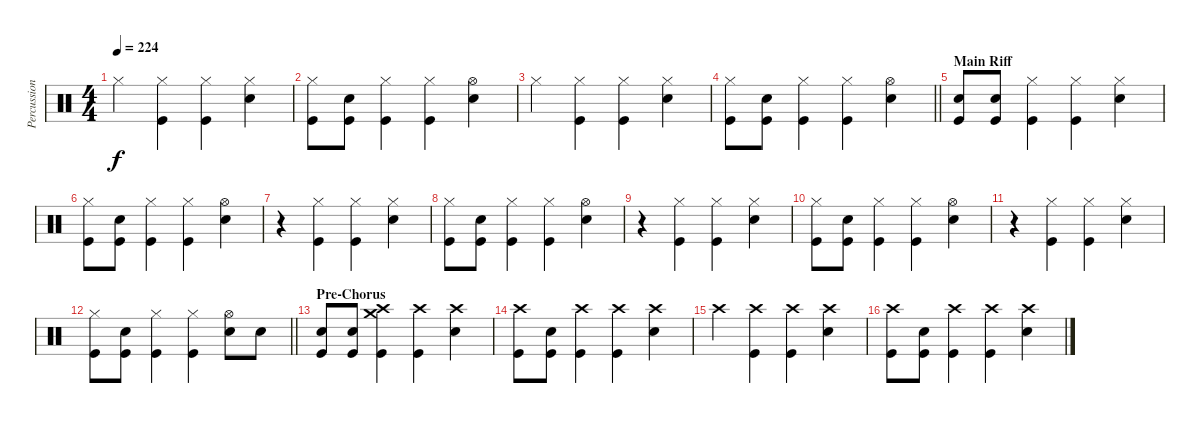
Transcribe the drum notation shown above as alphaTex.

\track ("Percussion" "Percussion") {instrument percussion}
\staff {score}
\articulation defaults
\ts (4 4)
\tempo 224
\clef neutral
\ks c "Hi-Hat (closed)".4{dy f}
("Hi-Hat (closed)" "Kick (hit)").4 ("Hi-Hat (closed)" "Kick (hit)").4 ("Hi-Hat (closed)" "Electric Snare (hit)").4 |
("Hi-Hat (closed)" "Kick (hit)").8 ("Electric Snare (hit)" "Kick (hit)").8 ("Hi-Hat (closed)" "Kick (hit)").4 ("Hi-Hat (closed)" "Kick (hit)").4 ("Hi-Hat (open)" "Electric Snare (hit)").4 |
"Hi-Hat (closed)".4 ("Hi-Hat (closed)" "Kick (hit)").4 ("Hi-Hat (closed)" "Kick (hit)").4 ("Hi-Hat (closed)" "Electric Snare (hit)").4 |
\barLineRight lightlight
("Hi-Hat (closed)" "Kick (hit)").8 ("Electric Snare (hit)" "Kick (hit)").8 ("Hi-Hat (closed)" "Kick (hit)").4 ("Hi-Hat (closed)" "Kick (hit)").4 ("Hi-Hat (open)" "Electric Snare (hit)").4 |
\section ("" "Main Riff")
("Electric Snare (hit)" "Kick (hit)").8 ("Electric Snare (hit)" "Kick (hit)").8 ("Hi-Hat (closed)" "Kick (hit)").4 ("Hi-Hat (closed)" "Kick (hit)").4 ("Hi-Hat (closed)" "Electric Snare (hit)").4 |
("Hi-Hat (closed)" "Kick (hit)").8 ("Electric Snare (hit)" "Kick (hit)").8 ("Hi-Hat (closed)" "Kick (hit)").4 ("Hi-Hat (closed)" "Kick (hit)").4 ("Hi-Hat (open)" "Electric Snare (hit)").4 |
r.4 ("Hi-Hat (closed)" "Kick (hit)").4 ("Hi-Hat (closed)" "Kick (hit)").4 ("Hi-Hat (closed)" "Electric Snare (hit)").4 |
("Hi-Hat (closed)" "Kick (hit)").8 ("Electric Snare (hit)" "Kick (hit)").8 ("Hi-Hat (closed)" "Kick (hit)").4 ("Hi-Hat (closed)" "Kick (hit)").4 ("Hi-Hat (open)" "Electric Snare (hit)").4 |
r.4 ("Hi-Hat (closed)" "Kick (hit)").4 ("Hi-Hat (closed)" "Kick (hit)").4 ("Hi-Hat (closed)" "Electric Snare (hit)").4 |
("Hi-Hat (closed)" "Kick (hit)").8 ("Electric Snare (hit)" "Kick (hit)").8 ("Hi-Hat (closed)" "Kick (hit)").4 ("Hi-Hat (closed)" "Kick (hit)").4 ("Hi-Hat (open)" "Electric Snare (hit)").4 |
r.4 ("Hi-Hat (closed)" "Kick (hit)").4 ("Hi-Hat (closed)" "Kick (hit)").4 ("Hi-Hat (closed)" "Electric Snare (hit)").4 |
\barLineRight lightlight
("Hi-Hat (closed)" "Kick (hit)").8 ("Electric Snare (hit)" "Kick (hit)").8 ("Hi-Hat (closed)" "Kick (hit)").4 ("Hi-Hat (closed)" "Kick (hit)").4 ("Hi-Hat (open)" "Electric Snare (hit)").8 "Electric Snare (hit)".8 |
\section ("" "Pre-Chorus")
("Electric Snare (hit)" "Kick (hit)").8 ("Electric Snare (hit)" "Kick (hit)").8 ("Crash high (hit)" "Crash medium (hit)" "Kick (hit)").4 ("Crash high (hit)" "Kick (hit)").4 ("Crash high (hit)" "Electric Snare (hit)").4 |
("Crash high (hit)" "Kick (hit)").8 ("Electric Snare (hit)" "Kick (hit)").8 ("Crash high (hit)" "Kick (hit)").4 ("Crash high (hit)" "Kick (hit)").4 ("Crash high (hit)" "Electric Snare (hit)").4 |
"Crash high (hit)".4 ("Crash high (hit)" "Kick (hit)").4 ("Crash high (hit)" "Kick (hit)").4 ("Crash high (hit)" "Electric Snare (hit)").4 |
("Crash high (hit)" "Kick (hit)").8 ("Electric Snare (hit)" "Kick (hit)").8 ("Crash high (hit)" "Kick (hit)").4 ("Crash high (hit)" "Kick (hit)").4 ("Crash high (hit)" "Electric Snare (hit)").4
